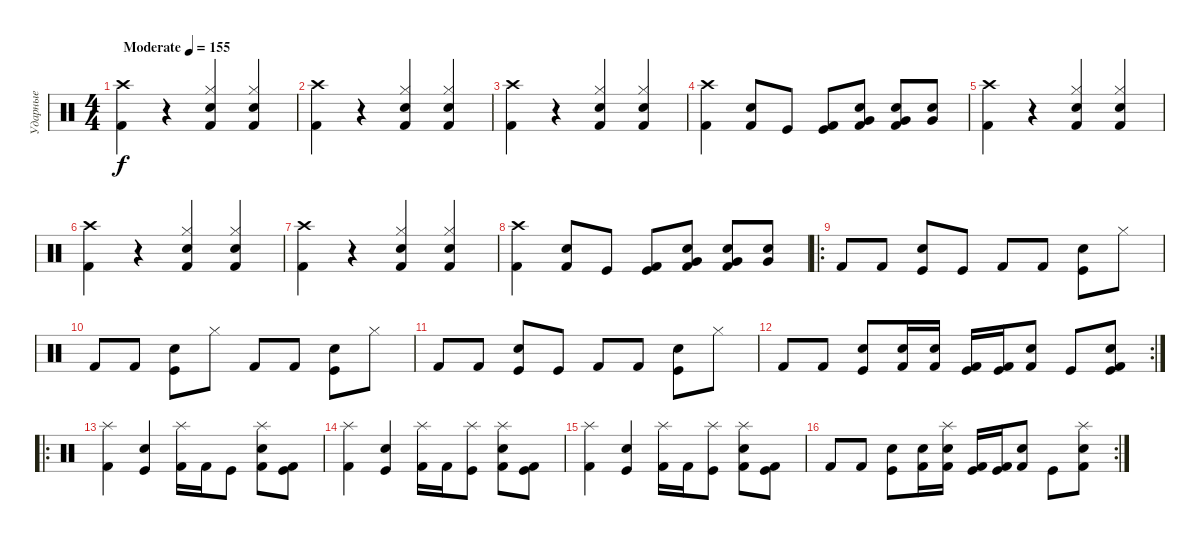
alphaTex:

\track ("Ударные" "Ударные") {instrument percussion}
\staff {score}
\articulation defaults
\ts (4 4)
\tempo (155 "Moderate")
\clef neutral
\ks c
("Crash high (hit)" "Kick (hit) 2").4{dy f} r.4 ("Hi-Hat (closed)" "Electric Snare (hit)" "Kick (hit) 2").4 ("Hi-Hat (closed)" "Electric Snare (hit)" "Kick (hit) 2").4 |
("Crash high (hit)" "Kick (hit) 2").4 r.4 ("Hi-Hat (closed)" "Electric Snare (hit)" "Kick (hit) 2").4 ("Hi-Hat (closed)" "Electric Snare (hit)" "Kick (hit) 2").4 |
("Crash high (hit)" "Kick (hit) 2").4 r.4 ("Hi-Hat (closed)" "Electric Snare (hit)" "Kick (hit) 2").4 ("Hi-Hat (closed)" "Electric Snare (hit)" "Kick (hit) 2").4 |
("Crash high (hit)" "Kick (hit) 2").4 ("Electric Snare (hit)" "Kick (hit) 2").8 "Kick (hit)".8 ("Kick (hit)" "Kick (hit) 2").8 ("Very Low Tom (hit)" "Electric Snare (hit)" "Kick (hit) 2").8 ("Very Low Tom (hit)" "Electric Snare (hit)" "Kick (hit) 2").8 ("Very Low Tom (hit)" "Electric Snare (hit)").8 |
("Crash high (hit)" "Kick (hit) 2").4 r.4 ("Hi-Hat (closed)" "Electric Snare (hit)" "Kick (hit) 2").4 ("Hi-Hat (closed)" "Electric Snare (hit)" "Kick (hit) 2").4 |
("Crash high (hit)" "Kick (hit) 2").4 r.4 ("Hi-Hat (closed)" "Electric Snare (hit)" "Kick (hit) 2").4 ("Hi-Hat (closed)" "Electric Snare (hit)" "Kick (hit) 2").4 |
("Crash high (hit)" "Kick (hit) 2").4 r.4 ("Hi-Hat (closed)" "Electric Snare (hit)" "Kick (hit) 2").4 ("Hi-Hat (closed)" "Electric Snare (hit)" "Kick (hit) 2").4 |
("Crash high (hit)" "Kick (hit) 2").4 ("Electric Snare (hit)" "Kick (hit) 2").8 "Kick (hit)".8 ("Kick (hit)" "Kick (hit) 2").8 ("Very Low Tom (hit)" "Electric Snare (hit)" "Kick (hit) 2").8 ("Very Low Tom (hit)" "Electric Snare (hit)" "Kick (hit) 2").8 ("Very Low Tom (hit)" "Electric Snare (hit)").8 |
\ro "Kick (hit) 2".8 "Kick (hit) 2".8
("Kick (hit)" "Electric Snare (hit)").8 "Kick (hit)".8 "Kick (hit) 2".8 "Kick (hit) 2".8 ("Kick (hit)" "Electric Snare (hit)").8 "Hi-Hat (closed)".8 |
"Kick (hit) 2".8 "Kick (hit) 2".8 ("Kick (hit)" "Electric Snare (hit)").8 "Hi-Hat (closed)".8 "Kick (hit) 2".8 "Kick (hit) 2".8 ("Kick (hit)" "Electric Snare (hit)").8 "Hi-Hat (closed)".8 |
"Kick (hit) 2".8 "Kick (hit) 2".8 ("Kick (hit)" "Electric Snare (hit)").8 "Kick (hit)".8 "Kick (hit) 2".8 "Kick (hit) 2".8 ("Kick (hit)" "Electric Snare (hit)").8 "Hi-Hat (closed)".8 |
\rc 2 "Kick (hit) 2".8 "Kick (hit) 2".8
("Kick (hit)" "Electric Snare (hit)").8 ("Electric Snare (hit)" "Kick (hit) 2").16 ("Electric Snare (hit)" "Kick (hit) 2").16 ("Kick (hit)" "Kick (hit) 2").16 ("Kick (hit)" "Kick (hit) 2").16 ("Electric Snare (hit)" "Kick (hit) 2").8 "Kick (hit)".8 ("Kick (hit)" "Electric Snare (hit)" "Kick (hit) 2").8 |
\ro
("Splash (hit)" "Kick (hit) 2").4 ("Kick (hit)" "Electric Snare (hit)").4 ("Splash (hit)" "Kick (hit) 2").16 "Kick (hit) 2".16 "Kick (hit)".8 ("Splash (hit)" "Electric Snare (hit)" "Kick (hit) 2").8 ("Kick (hit)" "Kick (hit) 2").8 |
("Splash (hit)" "Kick (hit) 2").4 ("Kick (hit)" "Electric Snare (hit)").4 ("Splash (hit)" "Kick (hit) 2").16 "Kick (hit) 2".16 ("Splash (hit)" "Kick (hit)").8 ("Splash (hit)" "Electric Snare (hit)" "Kick (hit) 2").8 ("Kick (hit)" "Kick (hit) 2").8 |
("Splash (hit)" "Kick (hit) 2").4 ("Kick (hit)" "Electric Snare (hit)").4 ("Splash (hit)" "Kick (hit) 2").16 "Kick (hit) 2".16 ("Splash (hit)" "Kick (hit)").8 ("Splash (hit)" "Electric Snare (hit)" "Kick (hit) 2").8 ("Kick (hit)" "Kick (hit) 2").8 |
\rc 2 "Kick (hit) 2".8 "Kick (hit) 2".8
("Kick (hit)" "Electric Snare (hit)").8 ("Electric Snare (hit)" "Kick (hit) 2").16 ("Splash (hit)" "Electric Snare (hit)" "Kick (hit) 2").16 ("Kick (hit)" "Kick (hit) 2").16 ("Kick (hit)" "Kick (hit) 2").16 ("Electric Snare (hit)" "Kick (hit) 2").8 "Kick (hit)".8 ("Splash (hit)" "Electric Snare (hit)" "Kick (hit) 2").8
